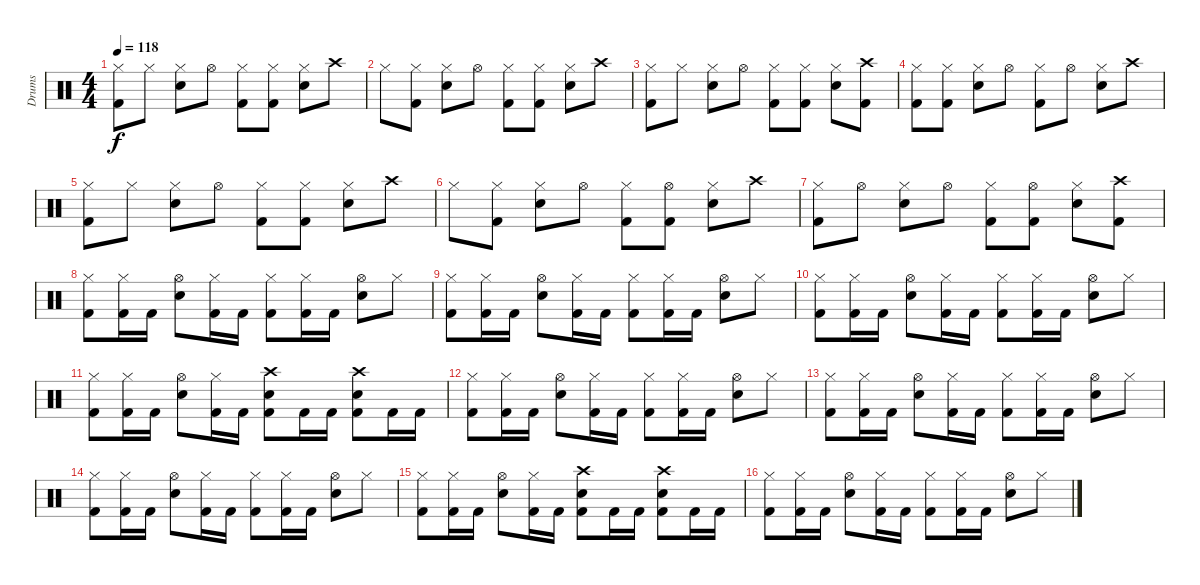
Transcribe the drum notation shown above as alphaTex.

\track ("Drums" "Drums") {solo instrument percussion}
\staff {score}
\articulation defaults
\ts (4 4)
\tempo 118
\clef neutral
\ks c
("Hi-Hat (closed)" "Kick (hit) 2").8{dy f} "Hi-Hat (closed)".8 ("Hi-Hat (closed)" "Snare (hit) 2").8 "Hi-Hat (open)".8 ("Hi-Hat (closed)" "Kick (hit) 2").8 ("Hi-Hat (closed)" "Kick (hit) 2").8 ("Hi-Hat (closed)" "Snare (hit) 2").8 "Crash high (hit)".8 |
"Hi-Hat (closed)".8 ("Hi-Hat (closed)" "Kick (hit) 2").8 ("Hi-Hat (closed)" "Snare (hit) 2").8 "Hi-Hat (open)".8 ("Hi-Hat (closed)" "Kick (hit) 2").8 ("Hi-Hat (closed)" "Kick (hit) 2").8 ("Hi-Hat (closed)" "Snare (hit) 2").8 "Crash high (hit)".8 |
("Hi-Hat (closed)" "Kick (hit) 2").8 "Hi-Hat (closed)".8 ("Hi-Hat (closed)" "Snare (hit) 2").8 "Hi-Hat (open)".8 ("Hi-Hat (closed)" "Kick (hit) 2").8 ("Hi-Hat (closed)" "Kick (hit) 2").8 ("Hi-Hat (closed)" "Snare (hit) 2").8 ("Crash high (hit)" "Kick (hit) 2").8 |
("Hi-Hat (closed)" "Kick (hit) 2").8 ("Hi-Hat (closed)" "Kick (hit) 2").8 ("Hi-Hat (closed)" "Snare (hit) 2").8 "Hi-Hat (open)".8 ("Hi-Hat (closed)" "Kick (hit) 2").8 "Hi-Hat (open)".8 ("Hi-Hat (closed)" "Snare (hit) 2").8 "Crash high (hit)".8 |
("Hi-Hat (closed)" "Kick (hit) 2").8 "Hi-Hat (closed)".8 ("Hi-Hat (closed)" "Snare (hit) 2").8 "Hi-Hat (open)".8 ("Hi-Hat (closed)" "Kick (hit) 2").8 ("Hi-Hat (closed)" "Kick (hit) 2").8 ("Hi-Hat (closed)" "Snare (hit) 2").8 "Crash high (hit)".8 |
"Hi-Hat (closed)".8 ("Hi-Hat (closed)" "Kick (hit) 2").8 ("Hi-Hat (closed)" "Snare (hit) 2").8 "Hi-Hat (open)".8 ("Hi-Hat (closed)" "Kick (hit) 2").8 ("Hi-Hat (open)" "Kick (hit) 2").8 ("Hi-Hat (closed)" "Snare (hit) 2").8 "Crash high (hit)".8 |
("Hi-Hat (closed)" "Kick (hit) 2").8 "Hi-Hat (open)".8 ("Hi-Hat (closed)" "Snare (hit) 2").8 "Hi-Hat (open)".8 ("Hi-Hat (closed)" "Kick (hit) 2").8 ("Hi-Hat (open)" "Kick (hit) 2").8 ("Hi-Hat (closed)" "Snare (hit) 2").8 ("Crash high (hit)" "Kick (hit) 2").8 |
("Hi-Hat (closed)" "Kick (hit) 2").8 ("Hi-Hat (closed)" "Kick (hit) 2").16 "Kick (hit) 2".16 ("Hi-Hat (open)" "Snare (hit) 2").8 ("Hi-Hat (closed)" "Kick (hit) 2").16 "Kick (hit) 2".16 ("Hi-Hat (closed)" "Kick (hit) 2").8 ("Hi-Hat (closed)" "Kick (hit) 2").16 "Kick (hit) 2".16 ("Hi-Hat (open)" "Snare (hit) 2").8 "Hi-Hat (closed)".8 |
("Hi-Hat (closed)" "Kick (hit) 2").8 ("Hi-Hat (closed)" "Kick (hit) 2").16 "Kick (hit) 2".16 ("Hi-Hat (open)" "Snare (hit) 2").8 ("Hi-Hat (closed)" "Kick (hit) 2").16 "Kick (hit) 2".16 ("Hi-Hat (closed)" "Kick (hit) 2").8 ("Hi-Hat (closed)" "Kick (hit) 2").16 "Kick (hit) 2".16 ("Hi-Hat (open)" "Snare (hit) 2").8 "Hi-Hat (closed)".8 |
("Hi-Hat (closed)" "Kick (hit) 2").8 ("Hi-Hat (closed)" "Kick (hit) 2").16 "Kick (hit) 2".16 ("Hi-Hat (open)" "Snare (hit) 2").8 ("Hi-Hat (closed)" "Kick (hit) 2").16 "Kick (hit) 2".16 ("Hi-Hat (closed)" "Kick (hit) 2").8 ("Hi-Hat (closed)" "Kick (hit) 2").16 "Kick (hit) 2".16 ("Hi-Hat (open)" "Snare (hit) 2").8 "Hi-Hat (closed)".8 |
("Hi-Hat (closed)" "Kick (hit) 2").8 ("Hi-Hat (closed)" "Kick (hit) 2").16 "Kick (hit) 2".16 ("Hi-Hat (open)" "Snare (hit) 2").8 ("Hi-Hat (closed)" "Kick (hit) 2").16 "Kick (hit) 2".16 ("Crash high (hit)" "Kick (hit) 2" "Snare (hit) 2").8 "Kick (hit) 2".16 "Kick (hit) 2".16 ("Crash high (hit)" "Kick (hit) 2" "Snare (hit) 2").8 "Kick (hit) 2".16 "Kick (hit) 2".16 |
("Hi-Hat (closed)" "Kick (hit) 2").8 ("Hi-Hat (closed)" "Kick (hit) 2").16 "Kick (hit) 2".16 ("Hi-Hat (open)" "Snare (hit) 2").8 ("Hi-Hat (closed)" "Kick (hit) 2").16 "Kick (hit) 2".16 ("Hi-Hat (closed)" "Kick (hit) 2").8 ("Hi-Hat (closed)" "Kick (hit) 2").16 "Kick (hit) 2".16 ("Hi-Hat (open)" "Snare (hit) 2").8 "Hi-Hat (closed)".8 |
("Hi-Hat (closed)" "Kick (hit) 2").8 ("Hi-Hat (closed)" "Kick (hit) 2").16 "Kick (hit) 2".16 ("Hi-Hat (open)" "Snare (hit) 2").8 ("Hi-Hat (closed)" "Kick (hit) 2").16 "Kick (hit) 2".16 ("Hi-Hat (closed)" "Kick (hit) 2").8 ("Hi-Hat (closed)" "Kick (hit) 2").16 "Kick (hit) 2".16 ("Hi-Hat (open)" "Snare (hit) 2").8 "Hi-Hat (closed)".8 |
("Hi-Hat (closed)" "Kick (hit) 2").8 ("Hi-Hat (closed)" "Kick (hit) 2").16 "Kick (hit) 2".16 ("Hi-Hat (open)" "Snare (hit) 2").8 ("Hi-Hat (closed)" "Kick (hit) 2").16 "Kick (hit) 2".16 ("Hi-Hat (closed)" "Kick (hit) 2").8 ("Hi-Hat (closed)" "Kick (hit) 2").16 "Kick (hit) 2".16 ("Hi-Hat (open)" "Snare (hit) 2").8 "Hi-Hat (closed)".8 |
("Hi-Hat (closed)" "Kick (hit) 2").8 ("Hi-Hat (closed)" "Kick (hit) 2").16 "Kick (hit) 2".16 ("Hi-Hat (open)" "Snare (hit) 2").8 ("Hi-Hat (closed)" "Kick (hit) 2").16 "Kick (hit) 2".16 ("Crash high (hit)" "Kick (hit) 2" "Snare (hit) 2").8 "Kick (hit) 2".16 "Kick (hit) 2".16 ("Crash high (hit)" "Kick (hit) 2" "Snare (hit) 2").8 "Kick (hit) 2".16 "Kick (hit) 2".16 |
("Hi-Hat (closed)" "Kick (hit) 2").8 ("Hi-Hat (closed)" "Kick (hit) 2").16 "Kick (hit) 2".16 ("Hi-Hat (open)" "Snare (hit) 2").8 ("Hi-Hat (closed)" "Kick (hit) 2").16 "Kick (hit) 2".16 ("Hi-Hat (closed)" "Kick (hit) 2").8 ("Hi-Hat (closed)" "Kick (hit) 2").16 "Kick (hit) 2".16 ("Hi-Hat (open)" "Snare (hit) 2").8 "Hi-Hat (closed)".8
